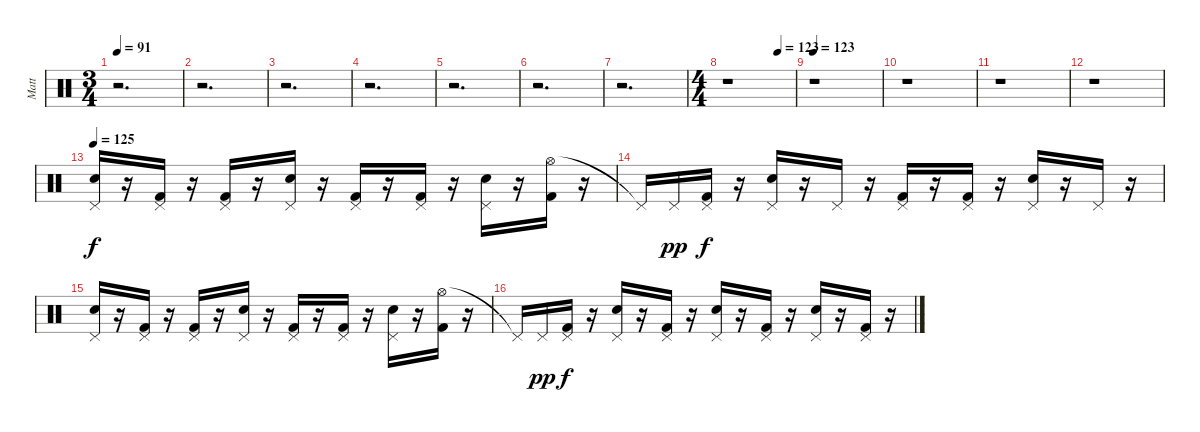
\track ("Matt" "Matt") {instrument percussion}
\staff {score}
\articulation defaults
\ts (3 4)
\tempo 91
\clef neutral
\ks c
r.2{d dy f} |
r.2{d} |
r.2{d} |
r.2{d} |
r.2{d} |
r.2{d} |
r.2{d} |
\ts (4 4)
\tempo (123 0.75)
r.1 |
\tempo 123
r.1 |
r.1 |
r.1 |
r.1 |
\tempo 123
\tempo 125
("Pedal Hi-Hat (hit)" "Electric Snare (hit)").16 r.16 ("Pedal Hi-Hat (hit)" "Kick (hit) 2").16 r.16 ("Pedal Hi-Hat (hit)" "Kick (hit) 2").16 r.16 ("Pedal Hi-Hat (hit)" "Electric Snare (hit)").16 r.16 ("Pedal Hi-Hat (hit)" "Kick (hit) 2").16 r.16 ("Pedal Hi-Hat (hit)" "Kick (hit) 2").16 r.16 ("Pedal Hi-Hat (hit)" "Electric Snare (hit)").16 r.16 ("Hi-Hat (open)" "Kick (hit) 2").16 r.16 |
"Pedal Hi-Hat (hit)"{t}.16 "Pedal Hi-Hat (hit)".16{dy pp} ("Pedal Hi-Hat (hit)" "Kick (hit) 2").16{dy f} r.16 ("Pedal Hi-Hat (hit)" "Electric Snare (hit)").16 r.16 "Pedal Hi-Hat (hit)".16 r.16 ("Pedal Hi-Hat (hit)" "Kick (hit) 2").16 r.16 ("Pedal Hi-Hat (hit)" "Kick (hit) 2").16 r.16 ("Pedal Hi-Hat (hit)" "Electric Snare (hit)").16 r.16 "Pedal Hi-Hat (hit)".16 r.16 |
("Pedal Hi-Hat (hit)" "Electric Snare (hit)").16 r.16 ("Pedal Hi-Hat (hit)" "Kick (hit) 2").16 r.16 ("Pedal Hi-Hat (hit)" "Kick (hit) 2").16 r.16 ("Pedal Hi-Hat (hit)" "Electric Snare (hit)").16 r.16 ("Pedal Hi-Hat (hit)" "Kick (hit) 2").16 r.16 ("Pedal Hi-Hat (hit)" "Kick (hit) 2").16 r.16 ("Pedal Hi-Hat (hit)" "Electric Snare (hit)").16 r.16 ("Hi-Hat (open)" "Kick (hit) 2").16 r.16 |
"Pedal Hi-Hat (hit)"{t}.16 "Pedal Hi-Hat (hit)".16{dy pp} ("Pedal Hi-Hat (hit)" "Kick (hit) 2").16{dy f} r.16 ("Pedal Hi-Hat (hit)" "Electric Snare (hit)").16 r.16 ("Pedal Hi-Hat (hit)" "Kick (hit) 2").16 r.16 ("Pedal Hi-Hat (hit)" "Electric Snare (hit)").16 r.16 ("Pedal Hi-Hat (hit)" "Kick (hit) 2").16 r.16 ("Pedal Hi-Hat (hit)" "Electric Snare (hit)").16 r.16 ("Pedal Hi-Hat (hit)" "Kick (hit) 2").16 r.16
